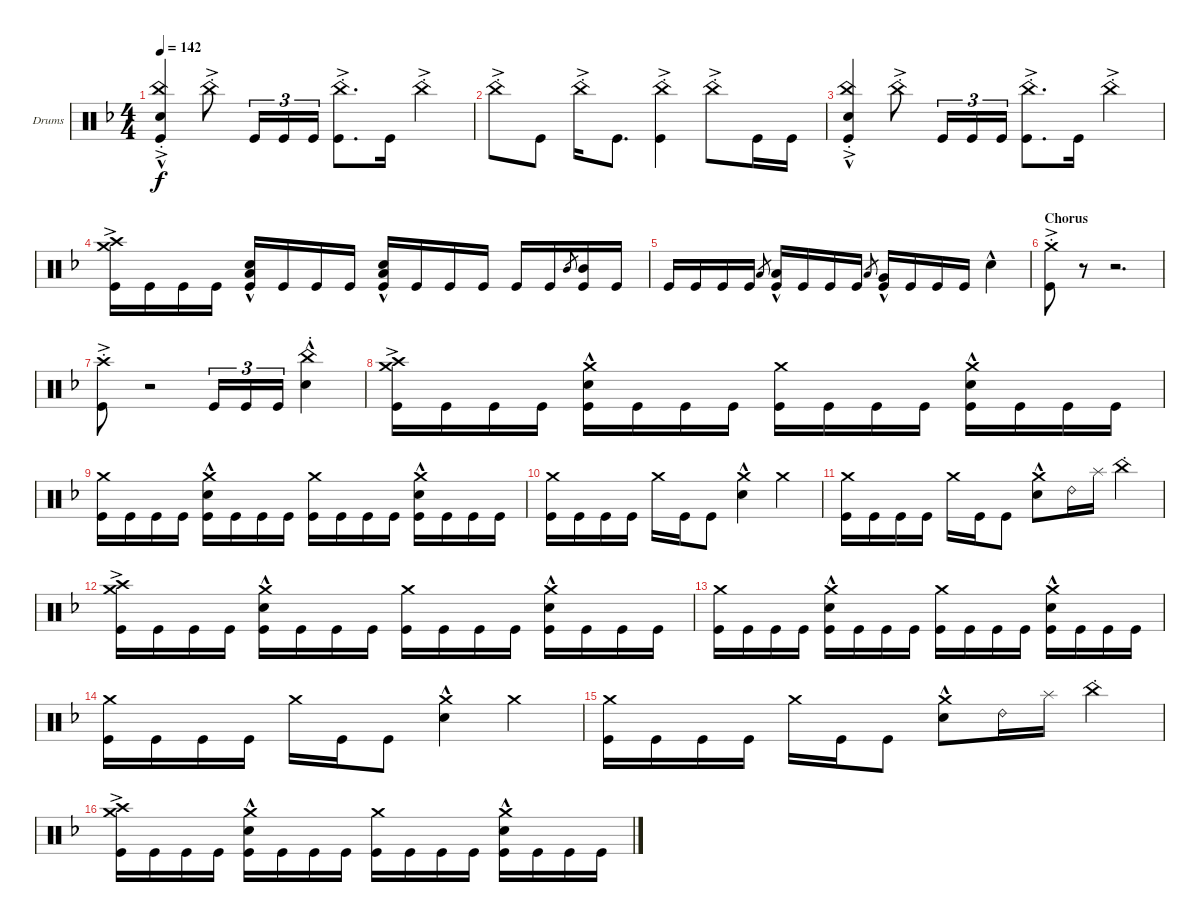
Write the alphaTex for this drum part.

\bracketExtendMode groupsimilarinstruments
\firstSystemTrackNameOrientation horizontal
\otherSystemsTrackNameOrientation horizontal
\track ("Drumkit" "Drums") {instrument percussion}
\staff {score}
\articulation defaults
\ts (4 4)
\tempo 142
\clef neutral
\scale
0.333333
\ks dminor
("Kick (hit)" "China (hit)"{ac st} "Snare (hit) 2"{hac}).4{dy f} "China (hit)"{ac st}.8 "Kick (hit)".16{tu (3 2)} "Kick (hit)".16{tu (3 2)} "Kick (hit)".16{tu (3 2)} ("Kick (hit)" "China (hit)"{ac st}).8{d} "Kick (hit)".16 "China (hit)"{ac st}.4 |
\scale
0.333333 "China (hit)"{ac st}.8 "Kick (hit)".8 "China (hit)"{ac st}.16 "Kick (hit)".8{d} ("China (hit)"{ac st} "Kick (hit)").4 "China (hit)"{ac st}.8 "Kick (hit)".16 "Kick (hit)".16 |
\scale
0.333333 ("Kick (hit)" "China (hit)"{ac st} "Snare (hit) 2"{hac}).4 "China (hit)"{ac st}.8 "Kick (hit)".16{tu (3 2)} "Kick (hit)".16{tu (3 2)} "Kick (hit)".16{tu (3 2)} ("Kick (hit)" "China (hit)"{ac st}).8{d} "Kick (hit)".16 "China (hit)"{ac st}.4 |
\scale
0.333333 ("Kick (hit)" "Crash medium (hit)"{ac} "Crash high (hit)"{ac}).16 "Kick (hit)".16 "Kick (hit)".16 "Kick (hit)".16 ("Kick (hit)" "Snare (hit) 2"{hac} "Low Tom (hit)").16 "Kick (hit)".16 "Kick (hit)".16 "Kick (hit)".16 ("Kick (hit)" "Snare (hit) 2"{hac} "Low Tom (hit)").16 "Kick (hit)".16 "Kick (hit)".16 "Kick (hit)".16 "Kick (hit)".16 "Kick (hit)".16 "Mid Tom (hit)".8{gr} ("Kick (hit)" "Mid Tom (hit)").16 "Kick (hit)".16 |
\scale
0.333333 "Kick (hit)".16 "Kick (hit)".16 "Kick (hit)".16 "Kick (hit)".16 "Low Tom (hit)".8{gr} ("Kick (hit)" "Low Tom (hit)"{hac}).16 "Kick (hit)".16 "Kick (hit)".16 "Kick (hit)".16 "Low Tom (hit)".8{gr} ("Kick (hit)" "Very Low Tom (hit)"{hac}).16 "Kick (hit)".16 "Kick (hit)".16 "Kick (hit)".16 "Snare (hit) 2"{hac}.4 |
\section ("" "Chorus")
\scale
0.333333 ("Kick (hit)" "Crash medium (hit)"{ac st}).8 r.8 r.2{d} |
\scale
0.333333 ("Kick (hit)" "Crash high (hit)"{ac st}).8 r.2 "Kick (hit)".16{tu (3 2)} "Kick (hit)".16{tu (3 2)} "Kick (hit)".16{tu (3 2)} ("Snare (hit) 2"{hac} "China (hit)"{st}).4 |
\scale
0.333333 ("Kick (hit)" "Crash medium (hit)" "Crash high (hit)"{ac}).16 "Kick (hit)".16 "Kick (hit)".16 "Kick (hit)".16 ("Kick (hit)" "Crash medium (hit)" "Snare (hit) 2"{hac}).16 "Kick (hit)".16 "Kick (hit)".16 "Kick (hit)".16 ("Kick (hit)" "Crash medium (hit)").16 "Kick (hit)".16 "Kick (hit)".16 "Kick (hit)".16 ("Kick (hit)" "Crash medium (hit)" "Snare (hit) 2"{hac}).16 "Kick (hit)".16 "Kick (hit)".16 "Kick (hit)".16 |
\scale
0.333333 ("Kick (hit)" "Crash medium (hit)").16 "Kick (hit)".16 "Kick (hit)".16 "Kick (hit)".16 ("Kick (hit)" "Crash medium (hit)" "Snare (hit) 2"{hac}).16 "Kick (hit)".16 "Kick (hit)".16 "Kick (hit)".16 ("Kick (hit)" "Crash medium (hit)").16 "Kick (hit)".16 "Kick (hit)".16 "Kick (hit)".16 ("Kick (hit)" "Crash medium (hit)" "Snare (hit) 2"{hac}).16 "Kick (hit)".16 "Kick (hit)".16 "Kick (hit)".16 |
\scale
0.333333 ("Kick (hit)" "Crash medium (hit)").16 "Kick (hit)".16 "Kick (hit)".16 "Kick (hit)".16 "Crash medium (hit)".16 "Kick (hit)".16 "Kick (hit)".8 ("Snare (hit) 2"{hac} "Crash medium (hit)").4 "Crash medium (hit)".4 |
\scale
0.333333 ("Kick (hit)" "Crash medium (hit)").16 "Kick (hit)".16 "Kick (hit)".16 "Kick (hit)".16 "Crash medium (hit)".16 "Kick (hit)".16 "Kick (hit)".8 ("Snare (hit) 2"{hac} "Crash medium (hit)").8 "Ride (bell) 2".16 "Splash (hit)".16 "China (hit)"{st}.4 |
\scale
0.333333 ("Kick (hit)" "Crash medium (hit)" "Crash high (hit)"{ac}).16 "Kick (hit)".16 "Kick (hit)".16 "Kick (hit)".16 ("Kick (hit)" "Crash medium (hit)" "Snare (hit) 2"{hac}).16 "Kick (hit)".16 "Kick (hit)".16 "Kick (hit)".16 ("Kick (hit)" "Crash medium (hit)").16 "Kick (hit)".16 "Kick (hit)".16 "Kick (hit)".16 ("Kick (hit)" "Crash medium (hit)" "Snare (hit) 2"{hac}).16 "Kick (hit)".16 "Kick (hit)".16 "Kick (hit)".16 |
\scale
0.333333 ("Kick (hit)" "Crash medium (hit)").16 "Kick (hit)".16 "Kick (hit)".16 "Kick (hit)".16 ("Kick (hit)" "Crash medium (hit)" "Snare (hit) 2"{hac}).16 "Kick (hit)".16 "Kick (hit)".16 "Kick (hit)".16 ("Kick (hit)" "Crash medium (hit)").16 "Kick (hit)".16 "Kick (hit)".16 "Kick (hit)".16 ("Kick (hit)" "Crash medium (hit)" "Snare (hit) 2"{hac}).16 "Kick (hit)".16 "Kick (hit)".16 "Kick (hit)".16 |
\scale
0.333333 ("Kick (hit)" "Crash medium (hit)").16 "Kick (hit)".16 "Kick (hit)".16 "Kick (hit)".16 "Crash medium (hit)".16 "Kick (hit)".16 "Kick (hit)".8 ("Snare (hit) 2"{hac} "Crash medium (hit)").4 "Crash medium (hit)".4 |
\scale
0.333333 ("Kick (hit)" "Crash medium (hit)").16 "Kick (hit)".16 "Kick (hit)".16 "Kick (hit)".16 "Crash medium (hit)".16 "Kick (hit)".16 "Kick (hit)".8 ("Snare (hit) 2"{hac} "Crash medium (hit)").8 "Ride (bell) 2".16 "Splash (hit)".16 "China (hit)"{st}.4 |
\scale
0.333333 ("Kick (hit)" "Crash medium (hit)" "Crash high (hit)"{ac}).16 "Kick (hit)".16 "Kick (hit)".16 "Kick (hit)".16 ("Kick (hit)" "Crash medium (hit)" "Snare (hit) 2"{hac}).16 "Kick (hit)".16 "Kick (hit)".16 "Kick (hit)".16 ("Kick (hit)" "Crash medium (hit)").16 "Kick (hit)".16 "Kick (hit)".16 "Kick (hit)".16 ("Kick (hit)" "Crash medium (hit)" "Snare (hit) 2"{hac}).16 "Kick (hit)".16 "Kick (hit)".16 "Kick (hit)".16
